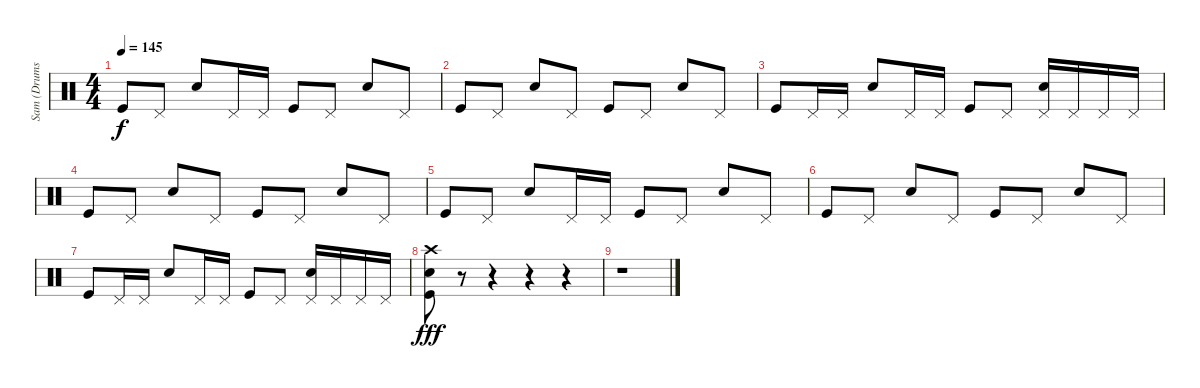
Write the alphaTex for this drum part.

\track ("Sam (Drums)" "Sam (Drums") {instrument percussion}
\staff {score}
\articulation defaults
\ts (4 4)
\tempo 145
\clef neutral
\ks c "Kick (hit)".8{dy f} "Pedal Hi-Hat (hit)".8 "Snare (hit) 2".8 "Pedal Hi-Hat (hit)".16 "Pedal Hi-Hat (hit)".16 "Kick (hit)".8 "Pedal Hi-Hat (hit)".8 "Snare (hit) 2".8 "Pedal Hi-Hat (hit)".8
|
"Kick (hit)".8 "Pedal Hi-Hat (hit)".8 "Snare (hit) 2".8 "Pedal Hi-Hat (hit)".8 "Kick (hit)".8 "Pedal Hi-Hat (hit)".8 "Snare (hit) 2".8 "Pedal Hi-Hat (hit)".8 |
"Kick (hit)".8 "Pedal Hi-Hat (hit)".16 "Pedal Hi-Hat (hit)".16 "Snare (hit) 2".8 "Pedal Hi-Hat (hit)".16 "Pedal Hi-Hat (hit)".16 "Kick (hit)".8 "Pedal Hi-Hat (hit)".8 ("Pedal Hi-Hat (hit)" "Snare (hit) 2").16 "Pedal Hi-Hat (hit)".16 "Pedal Hi-Hat (hit)".16 "Pedal Hi-Hat (hit)".16 |
"Kick (hit)".8 "Pedal Hi-Hat (hit)".8 "Snare (hit) 2".8 "Pedal Hi-Hat (hit)".8 "Kick (hit)".8 "Pedal Hi-Hat (hit)".8 "Snare (hit) 2".8 "Pedal Hi-Hat (hit)".8 |
"Kick (hit)".8 "Pedal Hi-Hat (hit)".8 "Snare (hit) 2".8 "Pedal Hi-Hat (hit)".16 "Pedal Hi-Hat (hit)".16 "Kick (hit)".8 "Pedal Hi-Hat (hit)".8 "Snare (hit) 2".8 "Pedal Hi-Hat (hit)".8 |
"Kick (hit)".8 "Pedal Hi-Hat (hit)".8 "Snare (hit) 2".8 "Pedal Hi-Hat (hit)".8 "Kick (hit)".8 "Pedal Hi-Hat (hit)".8 "Snare (hit) 2".8 "Pedal Hi-Hat (hit)".8 |
"Kick (hit)".8 "Pedal Hi-Hat (hit)".16 "Pedal Hi-Hat (hit)".16 "Snare (hit) 2".8 "Pedal Hi-Hat (hit)".16 "Pedal Hi-Hat (hit)".16 "Kick (hit)".8 "Pedal Hi-Hat (hit)".8 ("Pedal Hi-Hat (hit)" "Snare (hit) 2").16 "Pedal Hi-Hat (hit)".16 "Pedal Hi-Hat (hit)".16 "Pedal Hi-Hat (hit)".16 |
("Crash high (hit)" "Snare (hit) 2" "Kick (hit)").8{dy fff} r.8 r.4 r.4 r.4 |
r.1
